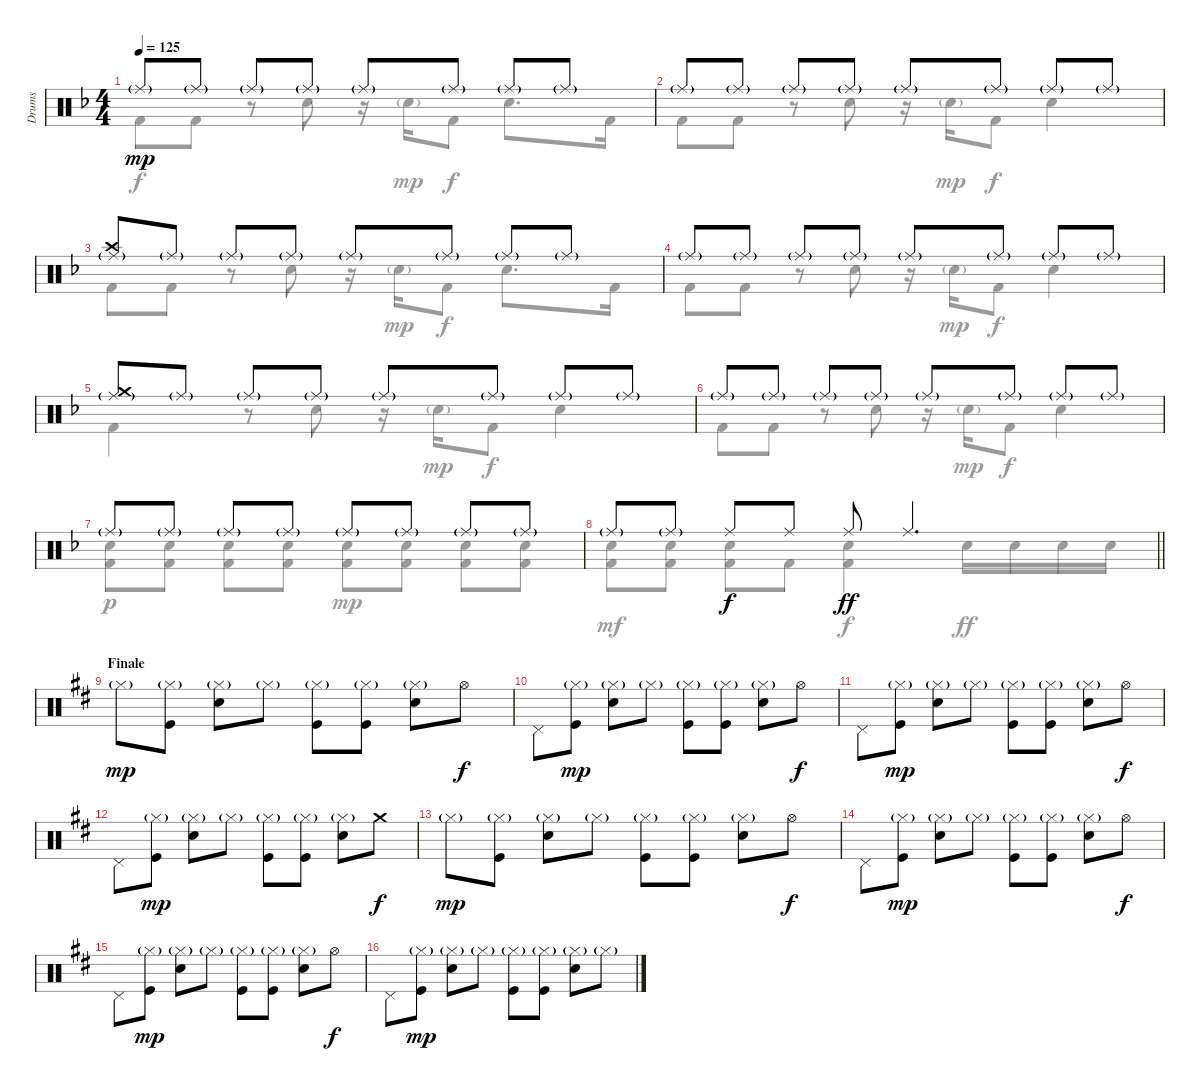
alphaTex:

\track ("Drums" "Drums") {instrument percussion}
\staff {score}
\articulation defaults
\voice
\ts (4 4)
\tempo 125
\clef neutral
\ks dminor "Ride (middle)"{g}.8{dy mp} "Ride (middle)"{g}.8 "Ride (middle)"{g}.8 "Ride (middle)"{g}.8 "Ride (middle)"{g}.8 "Ride (middle)"{g}.8 "Ride (middle)"{g}.8 "Ride (middle)"{g}.8
|
"Ride (middle)"{g}.8 "Ride (middle)"{g}.8 "Ride (middle)"{g}.8 "Ride (middle)"{g}.8 "Ride (middle)"{g}.8 "Ride (middle)"{g}.8 "Ride (middle)"{g}.8 "Ride (middle)"{g}.8 |
("Ride (middle)"{g} "Crash high (hit)").8 "Ride (middle)"{g}.8 "Ride (middle)"{g}.8 "Ride (middle)"{g}.8 "Ride (middle)"{g}.8 "Ride (middle)"{g}.8 "Ride (middle)"{g}.8 "Ride (middle)"{g}.8 |
"Ride (middle)"{g}.8 "Ride (middle)"{g}.8 "Ride (middle)"{g}.8 "Ride (middle)"{g}.8 "Ride (middle)"{g}.8 "Ride (middle)"{g}.8 "Ride (middle)"{g}.8 "Ride (middle)"{g}.8 |
("Ride (middle)"{g} "Crash medium (hit)").8 "Ride (middle)"{g}.8 "Ride (middle)"{g}.8 "Ride (middle)"{g}.8 "Ride (middle)"{g}.8 "Ride (middle)"{g}.8 "Ride (middle)"{g}.8 "Ride (middle)"{g}.8 |
"Ride (middle)"{g}.8 "Ride (middle)"{g}.8 "Ride (middle)"{g}.8 "Ride (middle)"{g}.8 "Ride (middle)"{g}.8 "Ride (middle)"{g}.8 "Ride (middle)"{g}.8 "Ride (middle)"{g}.8 |
"Ride (middle)"{g}.8 "Ride (middle)"{g}.8 "Ride (middle)"{g}.8 "Ride (middle)"{g}.8 "Ride (middle)"{g}.8 "Ride (middle)"{g}.8 "Ride (middle)"{g}.8 "Ride (middle)"{g}.8 |
\barLineRight lightlight "Ride (middle)"{g}.8 "Ride (middle)"{g}.8 "Ride (middle)".8{dy f} "Ride (middle)".8 "Ride (middle)".8{dy ff} "Ride (middle)".4{d}
|
\section ("" "Finale")
\ks bminor "Hi-Hat (closed)"{g}.8{dy mp}
("Hi-Hat (closed)"{g} "Kick (hit)").8 ("Hi-Hat (closed)"{g} "Electric Snare (hit)").8 "Hi-Hat (closed)"{g}.8 ("Hi-Hat (closed)"{g} "Kick (hit)").8 ("Hi-Hat (closed)"{g} "Kick (hit)").8 ("Hi-Hat (closed)"{g} "Electric Snare (hit)").8 "Hi-Hat (open)".8{dy f} |
"Pedal Hi-Hat (hit)".8 ("Hi-Hat (closed)"{g} "Kick (hit)").8{dy mp} ("Hi-Hat (closed)"{g} "Electric Snare (hit)").8 "Hi-Hat (closed)"{g}.8 ("Hi-Hat (closed)"{g} "Kick (hit)").8 ("Hi-Hat (closed)"{g} "Kick (hit)").8 ("Hi-Hat (closed)"{g} "Electric Snare (hit)").8 "Hi-Hat (open)".8{dy f} |
"Pedal Hi-Hat (hit)".8 ("Hi-Hat (closed)"{g} "Kick (hit)").8{dy mp} ("Hi-Hat (closed)"{g} "Electric Snare (hit)").8 "Hi-Hat (closed)"{g}.8 ("Hi-Hat (closed)"{g} "Kick (hit)").8 ("Hi-Hat (closed)"{g} "Kick (hit)").8 ("Hi-Hat (closed)"{g} "Electric Snare (hit)").8 "Hi-Hat (open)".8{dy f} |
"Pedal Hi-Hat (hit)".8 ("Hi-Hat (closed)"{g} "Kick (hit)").8{dy mp} ("Hi-Hat (closed)"{g} "Electric Snare (hit)").8 "Hi-Hat (closed)"{g}.8 ("Hi-Hat (closed)"{g} "Kick (hit)").8 ("Hi-Hat (closed)"{g} "Kick (hit)").8 ("Hi-Hat (closed)"{g} "Electric Snare (hit)").8 "Crash medium (hit)".8{dy f} |
"Hi-Hat (closed)"{g}.8{dy mp} ("Hi-Hat (closed)"{g} "Kick (hit)").8 ("Hi-Hat (closed)"{g} "Electric Snare (hit)").8 "Hi-Hat (closed)"{g}.8 ("Hi-Hat (closed)"{g} "Kick (hit)").8 ("Hi-Hat (closed)"{g} "Kick (hit)").8 ("Hi-Hat (closed)"{g} "Electric Snare (hit)").8 "Hi-Hat (open)".8{dy f} |
"Pedal Hi-Hat (hit)".8 ("Hi-Hat (closed)"{g} "Kick (hit)").8{dy mp} ("Hi-Hat (closed)"{g} "Electric Snare (hit)").8 "Hi-Hat (closed)"{g}.8 ("Hi-Hat (closed)"{g} "Kick (hit)").8 ("Hi-Hat (closed)"{g} "Kick (hit)").8 ("Hi-Hat (closed)"{g} "Electric Snare (hit)").8 "Hi-Hat (open)".8{dy f} |
"Pedal Hi-Hat (hit)".8 ("Hi-Hat (closed)"{g} "Kick (hit)").8{dy mp} ("Hi-Hat (closed)"{g} "Electric Snare (hit)").8 "Hi-Hat (closed)"{g}.8 ("Hi-Hat (closed)"{g} "Kick (hit)").8 ("Hi-Hat (closed)"{g} "Kick (hit)").8 ("Hi-Hat (closed)"{g} "Electric Snare (hit)").8 "Hi-Hat (open)".8{dy f} |
"Pedal Hi-Hat (hit)".8 ("Hi-Hat (closed)"{g} "Kick (hit)").8{dy mp} ("Hi-Hat (closed)"{g} "Electric Snare (hit)").8 "Hi-Hat (closed)"{g}.8 ("Hi-Hat (closed)"{g} "Kick (hit)").8 ("Hi-Hat (closed)"{g} "Kick (hit)").8 ("Hi-Hat (closed)"{g} "Electric Snare (hit)").8 "Hi-Hat (closed)"{g}.8
\voice
\clef neutral
\ottava regular
\simile none
\ks dminor "Kick (hit) 2".8{dy f} "Kick (hit) 2".8
r.8 "Electric Snare (hit)".8 r.16 "Electric Snare (hit)"{g}.16{dy mp} "Kick (hit) 2".8{dy f} "Electric Snare (hit)".8{d} "Kick (hit) 2".16 |
"Kick (hit) 2".8 "Kick (hit) 2".8 r.8 "Electric Snare (hit)".8 r.16 "Electric Snare (hit)"{g}.16{dy mp} "Kick (hit) 2".8{dy f} "Electric Snare (hit)".4 |
"Kick (hit) 2".8 "Kick (hit) 2".8 r.8 "Electric Snare (hit)".8 r.16 "Electric Snare (hit)"{g}.16{dy mp} "Kick (hit) 2".8{dy f} "Electric Snare (hit)".8{d} "Kick (hit) 2".16 |
"Kick (hit) 2".8 "Kick (hit) 2".8 r.8 "Electric Snare (hit)".8 r.16 "Electric Snare (hit)"{g}.16{dy mp} "Kick (hit) 2".8{dy f} "Electric Snare (hit)".4 |
"Kick (hit) 2".4 r.8 "Electric Snare (hit)".8 r.16 "Electric Snare (hit)"{g}.16{dy mp} "Kick (hit) 2".8{dy f} "Electric Snare (hit)".4 |
"Kick (hit) 2".8 "Kick (hit) 2".8 r.8 "Electric Snare (hit)".8 r.16 "Electric Snare (hit)"{g}.16{dy mp} "Kick (hit) 2".8{dy f} "Electric Snare (hit)".4 |
("Electric Snare (hit)" "Kick (hit) 2").8{dy p} ("Electric Snare (hit)" "Kick (hit) 2").8 ("Electric Snare (hit)" "Kick (hit) 2").8 ("Electric Snare (hit)" "Kick (hit) 2").8 ("Electric Snare (hit)" "Kick (hit) 2").8{dy mp} ("Electric Snare (hit)" "Kick (hit) 2").8 ("Electric Snare (hit)" "Kick (hit) 2").8 ("Electric Snare (hit)" "Kick (hit) 2").8 |
\barLineRight lightlight
("Electric Snare (hit)" "Kick (hit) 2").8{dy mf} ("Electric Snare (hit)" "Kick (hit) 2").8 ("Electric Snare (hit)" "Kick (hit) 2").8 "Kick (hit) 2".8 ("Electric Snare (hit)" "Kick (hit) 2").4{dy f} "Electric Snare (hit)".16{dy ff} "Electric Snare (hit)".16 "Electric Snare (hit)".16 "Electric Snare (hit)".16 |
\ks bminor
|
|
|
|
|
|
|
